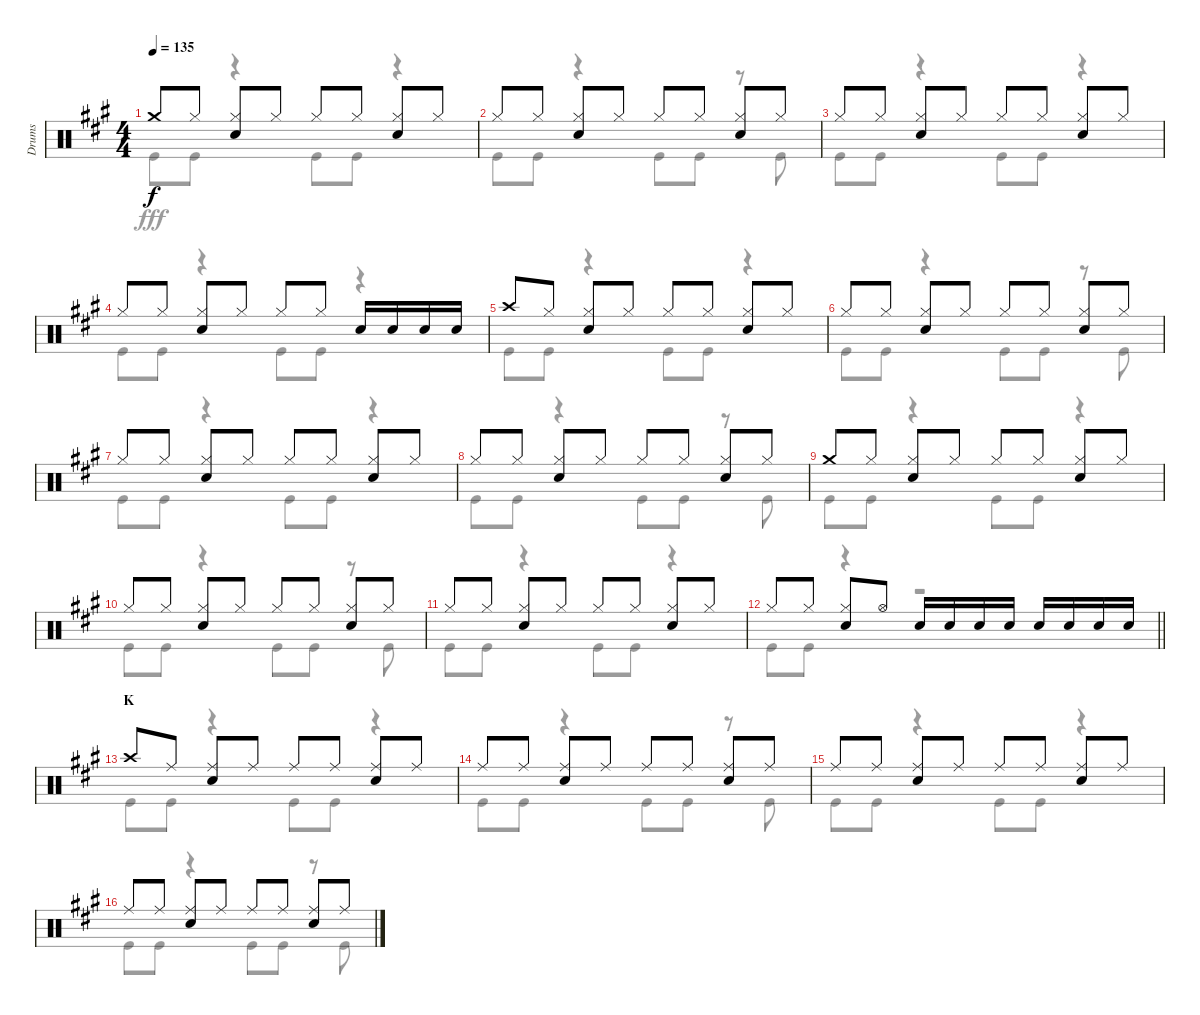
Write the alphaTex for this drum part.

\track ("Drums" "Drums") {instrument percussion}
\staff {score}
\articulation defaults
\voice
\ts (4 4)
\tempo 135
\clef neutral
\ks a "Crash medium (hit)".8{dy f} "Hi-Hat (closed)".8
("Hi-Hat (closed)" "Snare (hit) 2").8 "Hi-Hat (closed)".8 "Hi-Hat (closed)".8 "Hi-Hat (closed)".8 ("Hi-Hat (closed)" "Snare (hit) 2").8 "Hi-Hat (closed)".8 |
"Hi-Hat (closed)".8 "Hi-Hat (closed)".8 ("Hi-Hat (closed)" "Snare (hit) 2").8 "Hi-Hat (closed)".8 "Hi-Hat (closed)".8 "Hi-Hat (closed)".8 ("Hi-Hat (closed)" "Snare (hit) 2").8 "Hi-Hat (closed)".8 |
"Hi-Hat (closed)".8 "Hi-Hat (closed)".8 ("Hi-Hat (closed)" "Snare (hit) 2").8 "Hi-Hat (closed)".8 "Hi-Hat (closed)".8 "Hi-Hat (closed)".8 ("Hi-Hat (closed)" "Snare (hit) 2").8 "Hi-Hat (closed)".8 |
"Hi-Hat (closed)".8 "Hi-Hat (closed)".8 ("Hi-Hat (closed)" "Snare (hit) 2").8 "Hi-Hat (closed)".8 "Hi-Hat (closed)".8 "Hi-Hat (closed)".8 "Snare (hit) 2".16 "Snare (hit) 2".16 "Snare (hit) 2".16 "Snare (hit) 2".16 |
"Crash high (hit)".8 "Hi-Hat (closed)".8 ("Hi-Hat (closed)" "Snare (hit) 2").8 "Hi-Hat (closed)".8 "Hi-Hat (closed)".8 "Hi-Hat (closed)".8 ("Hi-Hat (closed)" "Snare (hit) 2").8 "Hi-Hat (closed)".8 |
"Hi-Hat (closed)".8 "Hi-Hat (closed)".8 ("Hi-Hat (closed)" "Snare (hit) 2").8 "Hi-Hat (closed)".8 "Hi-Hat (closed)".8 "Hi-Hat (closed)".8 ("Hi-Hat (closed)" "Snare (hit) 2").8 "Hi-Hat (closed)".8 |
"Hi-Hat (closed)".8 "Hi-Hat (closed)".8 ("Hi-Hat (closed)" "Snare (hit) 2").8 "Hi-Hat (closed)".8 "Hi-Hat (closed)".8 "Hi-Hat (closed)".8 ("Hi-Hat (closed)" "Snare (hit) 2").8 "Hi-Hat (closed)".8 |
"Hi-Hat (closed)".8 "Hi-Hat (closed)".8 ("Hi-Hat (closed)" "Snare (hit) 2").8 "Hi-Hat (closed)".8 "Hi-Hat (closed)".8 "Hi-Hat (closed)".8 ("Hi-Hat (closed)" "Snare (hit) 2").8 "Hi-Hat (closed)".8 |
"Crash medium (hit)".8 "Hi-Hat (closed)".8 ("Hi-Hat (closed)" "Snare (hit) 2").8 "Hi-Hat (closed)".8 "Hi-Hat (closed)".8 "Hi-Hat (closed)".8 ("Hi-Hat (closed)" "Snare (hit) 2").8 "Hi-Hat (closed)".8 |
"Hi-Hat (closed)".8 "Hi-Hat (closed)".8 ("Hi-Hat (closed)" "Snare (hit) 2").8 "Hi-Hat (closed)".8 "Hi-Hat (closed)".8 "Hi-Hat (closed)".8 ("Hi-Hat (closed)" "Snare (hit) 2").8 "Hi-Hat (closed)".8 |
"Hi-Hat (closed)".8 "Hi-Hat (closed)".8 ("Hi-Hat (closed)" "Snare (hit) 2").8 "Hi-Hat (closed)".8 "Hi-Hat (closed)".8 "Hi-Hat (closed)".8 ("Hi-Hat (closed)" "Snare (hit) 2").8 "Hi-Hat (closed)".8 |
\barLineRight lightlight "Hi-Hat (closed)".8 "Hi-Hat (closed)".8
("Hi-Hat (closed)" "Snare (hit) 2").8 "Hi-Hat (open)".8 "Snare (hit) 2".16 "Snare (hit) 2".16 "Snare (hit) 2".16 "Snare (hit) 2".16 "Snare (hit) 2".16 "Snare (hit) 2".16 "Snare (hit) 2".16 "Snare (hit) 2".16 |
\section ("" "K")
"Crash high (hit)".8 "Ride (middle)".8 ("Ride (middle)" "Snare (hit) 2").8 "Ride (middle)".8 "Ride (middle)".8 "Ride (middle)".8 ("Ride (middle)" "Snare (hit) 2").8 "Ride (middle)".8 |
"Ride (middle)".8 "Ride (middle)".8 ("Ride (middle)" "Snare (hit) 2").8 "Ride (middle)".8 "Ride (middle)".8 "Ride (middle)".8 ("Ride (middle)" "Snare (hit) 2").8 "Ride (middle)".8 |
"Ride (middle)".8 "Ride (middle)".8 ("Ride (middle)" "Snare (hit) 2").8 "Ride (middle)".8 "Ride (middle)".8 "Ride (middle)".8 ("Ride (middle)" "Snare (hit) 2").8 "Ride (middle)".8 |
"Ride (middle)".8 "Ride (middle)".8 ("Ride (middle)" "Snare (hit) 2").8 "Ride (middle)".8 "Ride (middle)".8 "Ride (middle)".8 ("Ride (middle)" "Snare (hit) 2").8 "Ride (middle)".8
\voice
\clef neutral
\ottava regular
\simile none
\ks a "Kick (hit)".8{dy fff} "Kick (hit)".8
r.4 "Kick (hit)".8 "Kick (hit)".8 r.4 |
"Kick (hit)".8 "Kick (hit)".8 r.4 "Kick (hit)".8 "Kick (hit)".8 r.8 "Kick (hit)".8 |
"Kick (hit)".8 "Kick (hit)".8 r.4 "Kick (hit)".8 "Kick (hit)".8 r.4 |
"Kick (hit)".8 "Kick (hit)".8 r.4 "Kick (hit)".8 "Kick (hit)".8 r.4 |
"Kick (hit)".8 "Kick (hit)".8 r.4 "Kick (hit)".8 "Kick (hit)".8 r.4 |
"Kick (hit)".8 "Kick (hit)".8 r.4 "Kick (hit)".8 "Kick (hit)".8 r.8 "Kick (hit)".8 |
"Kick (hit)".8 "Kick (hit)".8 r.4 "Kick (hit)".8 "Kick (hit)".8 r.4 |
"Kick (hit)".8 "Kick (hit)".8 r.4 "Kick (hit)".8 "Kick (hit)".8 r.8 "Kick (hit)".8 |
"Kick (hit)".8 "Kick (hit)".8 r.4 "Kick (hit)".8 "Kick (hit)".8 r.4 |
"Kick (hit)".8 "Kick (hit)".8 r.4 "Kick (hit)".8 "Kick (hit)".8 r.8 "Kick (hit)".8 |
"Kick (hit)".8 "Kick (hit)".8 r.4 "Kick (hit)".8 "Kick (hit)".8 r.4 |
\barLineRight lightlight "Kick (hit)".8 "Kick (hit)".8
r.4 r.2 |
"Kick (hit)".8 "Kick (hit)".8 r.4 "Kick (hit)".8 "Kick (hit)".8 r.4 |
"Kick (hit)".8 "Kick (hit)".8 r.4 "Kick (hit)".8 "Kick (hit)".8 r.8 "Kick (hit)".8 |
"Kick (hit)".8 "Kick (hit)".8 r.4 "Kick (hit)".8 "Kick (hit)".8 r.4 |
"Kick (hit)".8 "Kick (hit)".8 r.4 "Kick (hit)".8 "Kick (hit)".8 r.8 "Kick (hit)".8
